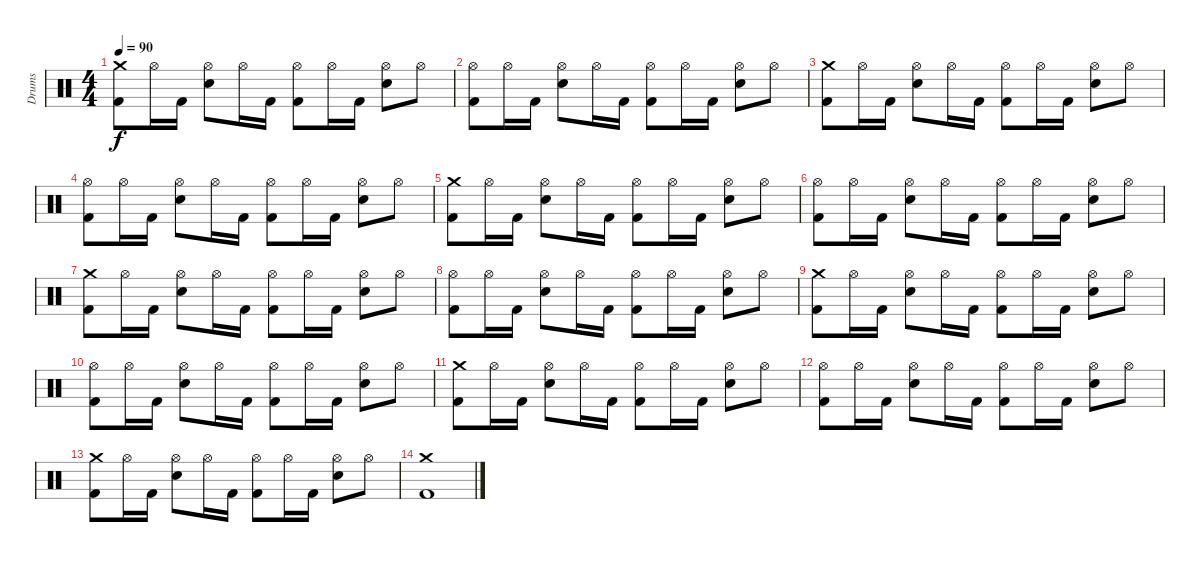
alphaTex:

\track ("Drums" "Drums") {instrument percussion}
\staff {score}
\articulation defaults
\ts (4 4)
\tempo 90
\clef neutral
\ks c
("Crash medium (hit)" "Kick (hit) 2").8{dy f} "Hi-Hat (open)".16 "Kick (hit) 2".16 ("Hi-Hat (open)" "Electric Snare (hit)").8 "Hi-Hat (open)".16 "Kick (hit) 2".16 ("Hi-Hat (open)" "Kick (hit) 2").8 "Hi-Hat (open)".16 "Kick (hit) 2".16 ("Hi-Hat (open)" "Electric Snare (hit)").8 "Hi-Hat (open)".8 |
("Hi-Hat (open)" "Kick (hit) 2").8 "Hi-Hat (open)".16 "Kick (hit) 2".16 ("Hi-Hat (open)" "Electric Snare (hit)").8 "Hi-Hat (open)".16 "Kick (hit) 2".16 ("Hi-Hat (open)" "Kick (hit) 2").8 "Hi-Hat (open)".16 "Kick (hit) 2".16 ("Hi-Hat (open)" "Electric Snare (hit)").8 "Hi-Hat (open)".8 |
("Crash medium (hit)" "Kick (hit) 2").8 "Hi-Hat (open)".16 "Kick (hit) 2".16 ("Hi-Hat (open)" "Electric Snare (hit)").8 "Hi-Hat (open)".16 "Kick (hit) 2".16 ("Hi-Hat (open)" "Kick (hit) 2").8 "Hi-Hat (open)".16 "Kick (hit) 2".16 ("Hi-Hat (open)" "Electric Snare (hit)").8 "Hi-Hat (open)".8 |
("Hi-Hat (open)" "Kick (hit) 2").8 "Hi-Hat (open)".16 "Kick (hit) 2".16 ("Hi-Hat (open)" "Electric Snare (hit)").8 "Hi-Hat (open)".16 "Kick (hit) 2".16 ("Hi-Hat (open)" "Kick (hit) 2").8 "Hi-Hat (open)".16 "Kick (hit) 2".16 ("Hi-Hat (open)" "Electric Snare (hit)").8 "Hi-Hat (open)".8 |
("Crash medium (hit)" "Kick (hit) 2").8 "Hi-Hat (open)".16 "Kick (hit) 2".16 ("Hi-Hat (open)" "Electric Snare (hit)").8 "Hi-Hat (open)".16 "Kick (hit) 2".16 ("Hi-Hat (open)" "Kick (hit) 2").8 "Hi-Hat (open)".16 "Kick (hit) 2".16 ("Hi-Hat (open)" "Electric Snare (hit)").8 "Hi-Hat (open)".8 |
("Hi-Hat (open)" "Kick (hit) 2").8 "Hi-Hat (open)".16 "Kick (hit) 2".16 ("Hi-Hat (open)" "Electric Snare (hit)").8 "Hi-Hat (open)".16 "Kick (hit) 2".16 ("Hi-Hat (open)" "Kick (hit) 2").8 "Hi-Hat (open)".16 "Kick (hit) 2".16 ("Hi-Hat (open)" "Electric Snare (hit)").8 "Hi-Hat (open)".8 |
("Crash medium (hit)" "Kick (hit) 2").8 "Hi-Hat (open)".16 "Kick (hit) 2".16 ("Hi-Hat (open)" "Electric Snare (hit)").8 "Hi-Hat (open)".16 "Kick (hit) 2".16 ("Hi-Hat (open)" "Kick (hit) 2").8 "Hi-Hat (open)".16 "Kick (hit) 2".16 ("Hi-Hat (open)" "Electric Snare (hit)").8 "Hi-Hat (open)".8 |
("Hi-Hat (open)" "Kick (hit) 2").8 "Hi-Hat (open)".16 "Kick (hit) 2".16 ("Hi-Hat (open)" "Electric Snare (hit)").8 "Hi-Hat (open)".16 "Kick (hit) 2".16 ("Hi-Hat (open)" "Kick (hit) 2").8 "Hi-Hat (open)".16 "Kick (hit) 2".16 ("Hi-Hat (open)" "Electric Snare (hit)").8 "Hi-Hat (open)".8 |
("Crash medium (hit)" "Kick (hit) 2").8 "Hi-Hat (open)".16 "Kick (hit) 2".16 ("Hi-Hat (open)" "Electric Snare (hit)").8 "Hi-Hat (open)".16 "Kick (hit) 2".16 ("Hi-Hat (open)" "Kick (hit) 2").8 "Hi-Hat (open)".16 "Kick (hit) 2".16 ("Hi-Hat (open)" "Electric Snare (hit)").8 "Hi-Hat (open)".8 |
("Hi-Hat (open)" "Kick (hit) 2").8 "Hi-Hat (open)".16 "Kick (hit) 2".16 ("Hi-Hat (open)" "Electric Snare (hit)").8 "Hi-Hat (open)".16 "Kick (hit) 2".16 ("Hi-Hat (open)" "Kick (hit) 2").8 "Hi-Hat (open)".16 "Kick (hit) 2".16 ("Hi-Hat (open)" "Electric Snare (hit)").8 "Hi-Hat (open)".8 |
("Crash medium (hit)" "Kick (hit) 2").8 "Hi-Hat (open)".16 "Kick (hit) 2".16 ("Hi-Hat (open)" "Electric Snare (hit)").8 "Hi-Hat (open)".16 "Kick (hit) 2".16 ("Hi-Hat (open)" "Kick (hit) 2").8 "Hi-Hat (open)".16 "Kick (hit) 2".16 ("Hi-Hat (open)" "Electric Snare (hit)").8 "Hi-Hat (open)".8 |
("Hi-Hat (open)" "Kick (hit) 2").8 "Hi-Hat (open)".16 "Kick (hit) 2".16 ("Hi-Hat (open)" "Electric Snare (hit)").8 "Hi-Hat (open)".16 "Kick (hit) 2".16 ("Hi-Hat (open)" "Kick (hit) 2").8 "Hi-Hat (open)".16 "Kick (hit) 2".16 ("Hi-Hat (open)" "Electric Snare (hit)").8 "Hi-Hat (open)".8 |
("Crash medium (hit)" "Kick (hit) 2").8 "Hi-Hat (open)".16 "Kick (hit) 2".16 ("Hi-Hat (open)" "Electric Snare (hit)").8 "Hi-Hat (open)".16 "Kick (hit) 2".16 ("Hi-Hat (open)" "Kick (hit) 2").8 "Hi-Hat (open)".16 "Kick (hit) 2".16 ("Hi-Hat (open)" "Electric Snare (hit)").8 "Hi-Hat (open)".8 |
("Crash medium (hit)" "Kick (hit) 2").1
